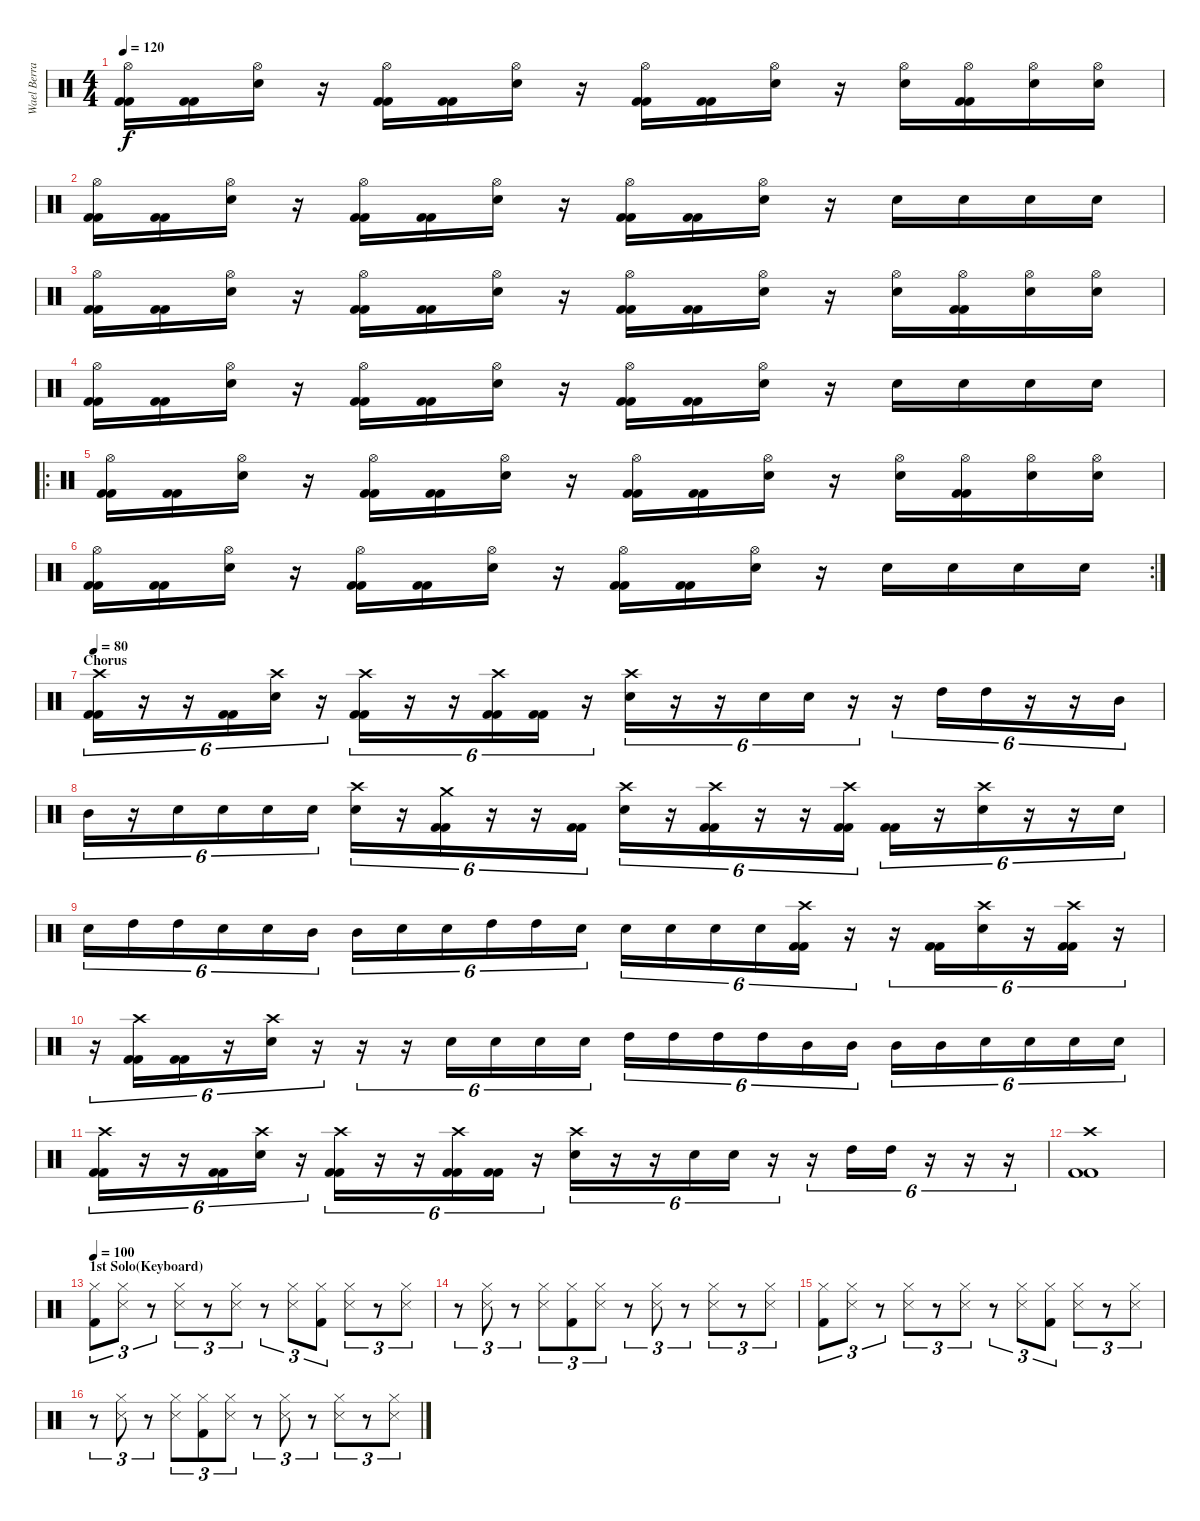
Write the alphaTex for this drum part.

\track ("Wael Berrais" "Wael Berra") {instrument percussion}
\staff {score}
\articulation defaults
\ts (4 4)
\tempo 120
\clef neutral
\ks c
("Hi-Hat (open)" "Kick (hit) 2" "Kick (hit) 2").16{dy f} ("Kick (hit) 2" "Kick (hit) 2").16 ("Hi-Hat (open)" "Electric Snare (hit)").16 r.16 ("Hi-Hat (open)" "Kick (hit) 2" "Kick (hit) 2").16 ("Kick (hit) 2" "Kick (hit) 2").16 ("Hi-Hat (open)" "Electric Snare (hit)").16 r.16 ("Hi-Hat (open)" "Kick (hit) 2" "Kick (hit) 2").16 ("Kick (hit) 2" "Kick (hit) 2").16 ("Hi-Hat (open)" "Electric Snare (hit)").16 r.16 ("Hi-Hat (open)" "Electric Snare (hit)").16 ("Hi-Hat (open)" "Kick (hit) 2" "Kick (hit) 2").16 ("Hi-Hat (open)" "Electric Snare (hit)").16 ("Hi-Hat (open)" "Electric Snare (hit)").16 |
("Hi-Hat (open)" "Kick (hit) 2" "Kick (hit) 2").16 ("Kick (hit) 2" "Kick (hit) 2").16 ("Hi-Hat (open)" "Electric Snare (hit)").16 r.16 ("Hi-Hat (open)" "Kick (hit) 2" "Kick (hit) 2").16 ("Kick (hit) 2" "Kick (hit) 2").16 ("Hi-Hat (open)" "Electric Snare (hit)").16 r.16 ("Hi-Hat (open)" "Kick (hit) 2" "Kick (hit) 2").16 ("Kick (hit) 2" "Kick (hit) 2").16 ("Hi-Hat (open)" "Electric Snare (hit)").16 r.16 "Electric Snare (hit)".16 "Electric Snare (hit)".16 "Electric Snare (hit)".16 "Electric Snare (hit)".16 |
("Hi-Hat (open)" "Kick (hit) 2" "Kick (hit) 2").16 ("Kick (hit) 2" "Kick (hit) 2").16 ("Hi-Hat (open)" "Electric Snare (hit)").16 r.16 ("Hi-Hat (open)" "Kick (hit) 2" "Kick (hit) 2").16 ("Kick (hit) 2" "Kick (hit) 2").16 ("Hi-Hat (open)" "Electric Snare (hit)").16 r.16 ("Hi-Hat (open)" "Kick (hit) 2" "Kick (hit) 2").16 ("Kick (hit) 2" "Kick (hit) 2").16 ("Hi-Hat (open)" "Electric Snare (hit)").16 r.16 ("Hi-Hat (open)" "Electric Snare (hit)").16 ("Hi-Hat (open)" "Kick (hit) 2" "Kick (hit) 2").16 ("Hi-Hat (open)" "Electric Snare (hit)").16 ("Hi-Hat (open)" "Electric Snare (hit)").16 |
("Hi-Hat (open)" "Kick (hit) 2" "Kick (hit) 2").16 ("Kick (hit) 2" "Kick (hit) 2").16 ("Hi-Hat (open)" "Electric Snare (hit)").16 r.16 ("Hi-Hat (open)" "Kick (hit) 2" "Kick (hit) 2").16 ("Kick (hit) 2" "Kick (hit) 2").16 ("Hi-Hat (open)" "Electric Snare (hit)").16 r.16 ("Hi-Hat (open)" "Kick (hit) 2" "Kick (hit) 2").16 ("Kick (hit) 2" "Kick (hit) 2").16 ("Hi-Hat (open)" "Electric Snare (hit)").16 r.16 "Electric Snare (hit)".16 "Electric Snare (hit)".16 "Electric Snare (hit)".16 "Electric Snare (hit)".16 |
\ro
("Hi-Hat (open)" "Kick (hit) 2" "Kick (hit) 2").16 ("Kick (hit) 2" "Kick (hit) 2").16 ("Hi-Hat (open)" "Electric Snare (hit)").16 r.16 ("Hi-Hat (open)" "Kick (hit) 2" "Kick (hit) 2").16 ("Kick (hit) 2" "Kick (hit) 2").16 ("Hi-Hat (open)" "Electric Snare (hit)").16 r.16 ("Hi-Hat (open)" "Kick (hit) 2" "Kick (hit) 2").16 ("Kick (hit) 2" "Kick (hit) 2").16 ("Hi-Hat (open)" "Electric Snare (hit)").16 r.16 ("Hi-Hat (open)" "Electric Snare (hit)").16 ("Hi-Hat (open)" "Kick (hit) 2" "Kick (hit) 2").16 ("Hi-Hat (open)" "Electric Snare (hit)").16 ("Hi-Hat (open)" "Electric Snare (hit)").16 |
\rc 2
("Hi-Hat (open)" "Kick (hit) 2" "Kick (hit) 2").16 ("Kick (hit) 2" "Kick (hit) 2").16 ("Hi-Hat (open)" "Electric Snare (hit)").16 r.16 ("Hi-Hat (open)" "Kick (hit) 2" "Kick (hit) 2").16 ("Kick (hit) 2" "Kick (hit) 2").16 ("Hi-Hat (open)" "Electric Snare (hit)").16 r.16 ("Hi-Hat (open)" "Kick (hit) 2" "Kick (hit) 2").16 ("Kick (hit) 2" "Kick (hit) 2").16 ("Hi-Hat (open)" "Electric Snare (hit)").16 r.16 "Electric Snare (hit)".16 "Electric Snare (hit)".16 "Electric Snare (hit)".16 "Electric Snare (hit)".16 |
\section ("" "Chorus")
\tempo 80
("Crash high (hit)" "Kick (hit) 2" "Kick (hit) 2").16{tu (6 4)} r.16{tu (6 4)} r.16{tu (6 4)} ("Kick (hit) 2" "Kick (hit) 2").16{tu (6 4)} ("Electric Snare (hit)" "Crash high (hit)").16{tu (6 4)} r.16{tu (6 4)} ("Crash high (hit)" "Kick (hit) 2" "Kick (hit) 2").16{tu (6 4)} r.16{tu (6 4)} r.16{tu (6 4)} ("Crash high (hit)" "Kick (hit) 2" "Kick (hit) 2").16{tu (6 4)} ("Kick (hit) 2" "Kick (hit) 2").16{tu (6 4)} r.16{tu (6 4)} ("Crash high (hit)" "Electric Snare (hit)").16{tu (6 4)} r.16{tu (6 4)} r.16{tu (6 4)} "Electric Snare (hit)".16{tu (6 4)} "Electric Snare (hit)".16{tu (6 4)} r.16{tu (6 4)} r.16{tu (6 4)} "High Tom (hit)".16{tu (6 4)} "High Tom (hit)".16{tu (6 4)} r.16{tu (6 4)} r.16{tu (6 4)} "Mid Tom (hit)".16{tu (6 4)} |
"Mid Tom (hit)".16{tu (6 4)} r.16{tu (6 4)} "Electric Snare (hit)".16{tu (6 4)} "Electric Snare (hit)".16{tu (6 4)} "Electric Snare (hit)".16{tu (6 4)} "Electric Snare (hit)".16{tu (6 4)} ("Electric Snare (hit)" "Crash high (hit)").16{tu (6 4)} r.16{tu (6 4)} ("Crash medium (hit)" "Kick (hit) 2" "Kick (hit) 2").16{tu (6 4)} r.16{tu (6 4)} r.16{tu (6 4)} ("Kick (hit) 2" "Kick (hit) 2").16{tu (6 4)} ("Electric Snare (hit)" "Crash high (hit)").16{tu (6 4)} r.16{tu (6 4)} ("Crash high (hit)" "Kick (hit) 2" "Kick (hit) 2").16{tu (6 4)} r.16{tu (6 4)} r.16{tu (6 4)} ("Crash high (hit)" "Kick (hit) 2" "Kick (hit) 2").16{tu (6 4)} ("Kick (hit) 2" "Kick (hit) 2").16{tu (6 4)} r.16{tu (6 4)} ("Electric Snare (hit)" "Crash high (hit)").16{tu (6 4)} r.16{tu (6 4)} r.16{tu (6 4)} "Electric Snare (hit)".16{tu (6 4)} |
"Electric Snare (hit)".16{tu (6 4)} "High Tom (hit)".16{tu (6 4)} "High Tom (hit)".16{tu (6 4)} "Electric Snare (hit)".16{tu (6 4)} "Electric Snare (hit)".16{tu (6 4)} "Mid Tom (hit)".16{tu (6 4)} "Mid Tom (hit)".16{tu (6 4)} "Electric Snare (hit)".16{tu (6 4)} "Electric Snare (hit)".16{tu (6 4)} "High Tom (hit)".16{tu (6 4)} "High Tom (hit)".16{tu (6 4)} "Electric Snare (hit)".16{tu (6 4)} "Electric Snare (hit)".16{tu (6 4)} "Electric Snare (hit)".16{tu (6 4)} "Electric Snare (hit)".16{tu (6 4)} "Electric Snare (hit)".16{tu (6 4)} ("Crash high (hit)" "Kick (hit) 2" "Kick (hit) 2").16{tu (6 4)} r.16{tu (6 4)} r.16{tu (6 4)} ("Kick (hit) 2" "Kick (hit) 2").16{tu (6 4)} ("Crash high (hit)" "Electric Snare (hit)").16{tu (6 4)} r.16{tu (6 4)} ("Crash high (hit)" "Kick (hit) 2" "Kick (hit) 2").16{tu (6 4)} r.16{tu (6 4)} |
r.16{tu (6 4)} ("Crash high (hit)" "Kick (hit) 2" "Kick (hit) 2").16{tu (6 4)} ("Kick (hit) 2" "Kick (hit) 2").16{tu (6 4)} r.16{tu (6 4)} ("Electric Snare (hit)" "Crash high (hit)").16{tu (6 4)} r.16{tu (6 4)} r.16{tu (6 4)} r.16{tu (6 4)} "Electric Snare (hit)".16{tu (6 4)} "Electric Snare (hit)".16{tu (6 4)} "Electric Snare (hit)".16{tu (6 4)} "Electric Snare (hit)".16{tu (6 4)} "High Tom (hit)".16{tu (6 4)} "High Tom (hit)".16{tu (6 4)} "High Tom (hit)".16{tu (6 4)} "High Tom (hit)".16{tu (6 4)} "Mid Tom (hit)".16{tu (6 4)} "Mid Tom (hit)".16{tu (6 4)} "Mid Tom (hit)".16{tu (6 4)} "Mid Tom (hit)".16{tu (6 4)} "Electric Snare (hit)".16{tu (6 4)} "Electric Snare (hit)".16{tu (6 4)} "Electric Snare (hit)".16{tu (6 4)} "Electric Snare (hit)".16{tu (6 4)} |
("Crash high (hit)" "Kick (hit) 2" "Kick (hit) 2").16{tu (6 4)} r.16{tu (6 4)} r.16{tu (6 4)} ("Kick (hit) 2" "Kick (hit) 2").16{tu (6 4)} ("Electric Snare (hit)" "Crash high (hit)").16{tu (6 4)} r.16{tu (6 4)} ("Crash high (hit)" "Kick (hit) 2" "Kick (hit) 2").16{tu (6 4)} r.16{tu (6 4)} r.16{tu (6 4)} ("Crash high (hit)" "Kick (hit) 2" "Kick (hit) 2").16{tu (6 4)} ("Kick (hit) 2" "Kick (hit) 2").16{tu (6 4)} r.16{tu (6 4)} ("Crash high (hit)" "Electric Snare (hit)").16{tu (6 4)} r.16{tu (6 4)} r.16{tu (6 4)} "Electric Snare (hit)".16{tu (6 4)} "Electric Snare (hit)".16{tu (6 4)} r.16{tu (6 4)} r.16{tu (6 4)} "High Tom (hit)".16{tu (6 4)} "High Tom (hit)".16{tu (6 4)} r.16{tu (6 4)} r.16{tu (6 4)} r.16{tu (6 4)} |
("Crash high (hit)" "Kick (hit) 2" "Kick (hit) 2").1 |
\section ("" "1st Solo(Keyboard)")
\tempo 100
("Hi-Hat (closed)" "Kick (hit) 2").8{tu (3 2)} ("Hi-Hat (closed)" "Snare (side stick) 3").8{tu (3 2)} r.8{tu (3 2)} ("Hi-Hat (closed)" "Snare (side stick) 3").8{tu (3 2)} r.8{tu (3 2)} ("Hi-Hat (closed)" "Snare (side stick) 3").8{tu (3 2)} r.8{tu (3 2)} ("Hi-Hat (closed)" "Snare (side stick) 3").8{tu (3 2)} ("Hi-Hat (closed)" "Kick (hit) 2").8{tu (3 2)} ("Hi-Hat (closed)" "Snare (side stick) 3").8{tu (3 2)} r.8{tu (3 2)} ("Hi-Hat (closed)" "Snare (side stick) 3").8{tu (3 2)} |
r.8{tu (3 2)} ("Hi-Hat (closed)" "Snare (side stick) 3").8{tu (3 2)} r.8{tu (3 2)} ("Hi-Hat (closed)" "Snare (side stick) 3").8{tu (3 2)} ("Hi-Hat (closed)" "Kick (hit) 2").8{tu (3 2)} ("Hi-Hat (closed)" "Snare (side stick) 3").8{tu (3 2)} r.8{tu (3 2)} ("Hi-Hat (closed)" "Snare (side stick) 3").8{tu (3 2)} r.8{tu (3 2)} ("Hi-Hat (closed)" "Snare (side stick) 3").8{tu (3 2)} r.8{tu (3 2)} ("Hi-Hat (closed)" "Snare (side stick) 3").8{tu (3 2)} |
("Hi-Hat (closed)" "Kick (hit) 2").8{tu (3 2)} ("Hi-Hat (closed)" "Snare (side stick) 3").8{tu (3 2)} r.8{tu (3 2)} ("Hi-Hat (closed)" "Snare (side stick) 3").8{tu (3 2)} r.8{tu (3 2)} ("Hi-Hat (closed)" "Snare (side stick) 3").8{tu (3 2)} r.8{tu (3 2)} ("Hi-Hat (closed)" "Snare (side stick) 3").8{tu (3 2)} ("Hi-Hat (closed)" "Kick (hit) 2").8{tu (3 2)} ("Hi-Hat (closed)" "Snare (side stick) 3").8{tu (3 2)} r.8{tu (3 2)} ("Hi-Hat (closed)" "Snare (side stick) 3").8{tu (3 2)} |
r.8{tu (3 2)} ("Hi-Hat (closed)" "Snare (side stick) 3").8{tu (3 2)} r.8{tu (3 2)} ("Hi-Hat (closed)" "Snare (side stick) 3").8{tu (3 2)} ("Hi-Hat (closed)" "Kick (hit) 2").8{tu (3 2)} ("Hi-Hat (closed)" "Snare (side stick) 3").8{tu (3 2)} r.8{tu (3 2)} ("Hi-Hat (closed)" "Snare (side stick) 3").8{tu (3 2)} r.8{tu (3 2)} ("Hi-Hat (closed)" "Snare (side stick) 3").8{tu (3 2)} r.8{tu (3 2)} ("Hi-Hat (closed)" "Snare (side stick) 3").8{tu (3 2)}
